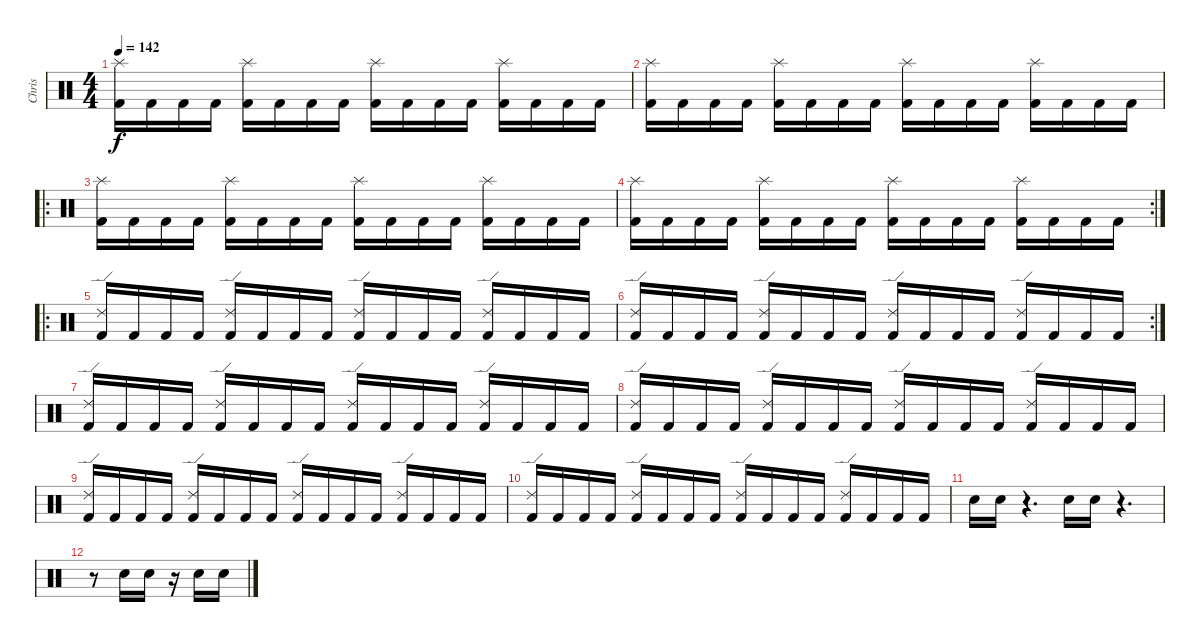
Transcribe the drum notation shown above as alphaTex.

\track ("Chris" "Chris") {instrument percussion}
\staff {score}
\articulation defaults
\ts (4 4)
\tempo 142
\clef neutral
\ks c
("Splash (hit)" "Kick (hit) 2").16{dy f} "Kick (hit) 2".16 "Kick (hit) 2".16 "Kick (hit) 2".16 ("Splash (hit)" "Kick (hit) 2").16 "Kick (hit) 2".16 "Kick (hit) 2".16 "Kick (hit) 2".16 ("Splash (hit)" "Kick (hit) 2").16 "Kick (hit) 2".16 "Kick (hit) 2".16 "Kick (hit) 2".16 ("Splash (hit)" "Kick (hit) 2").16 "Kick (hit) 2".16 "Kick (hit) 2".16 "Kick (hit) 2".16 |
("Splash (hit)" "Kick (hit) 2").16 "Kick (hit) 2".16 "Kick (hit) 2".16 "Kick (hit) 2".16 ("Splash (hit)" "Kick (hit) 2").16 "Kick (hit) 2".16 "Kick (hit) 2".16 "Kick (hit) 2".16 ("Splash (hit)" "Kick (hit) 2").16 "Kick (hit) 2".16 "Kick (hit) 2".16 "Kick (hit) 2".16 ("Splash (hit)" "Kick (hit) 2").16 "Kick (hit) 2".16 "Kick (hit) 2".16 "Kick (hit) 2".16 |
\ro
("Splash (hit)" "Kick (hit) 2").16 "Kick (hit) 2".16 "Kick (hit) 2".16 "Kick (hit) 2".16 ("Splash (hit)" "Kick (hit) 2").16 "Kick (hit) 2".16 "Kick (hit) 2".16 "Kick (hit) 2".16 ("Splash (hit)" "Kick (hit) 2").16 "Kick (hit) 2".16 "Kick (hit) 2".16 "Kick (hit) 2".16 ("Splash (hit)" "Kick (hit) 2").16 "Kick (hit) 2".16 "Kick (hit) 2".16 "Kick (hit) 2".16 |
\rc 2
("Splash (hit)" "Kick (hit) 2").16 "Kick (hit) 2".16 "Kick (hit) 2".16 "Kick (hit) 2".16 ("Splash (hit)" "Kick (hit) 2").16 "Kick (hit) 2".16 "Kick (hit) 2".16 "Kick (hit) 2".16 ("Splash (hit)" "Kick (hit) 2").16 "Kick (hit) 2".16 "Kick (hit) 2".16 "Kick (hit) 2".16 ("Splash (hit)" "Kick (hit) 2").16 "Kick (hit) 2".16 "Kick (hit) 2".16 "Kick (hit) 2".16 |
\ro
("Ride (edge) 2" "Kick (hit) 2").16 "Kick (hit) 2".16 "Kick (hit) 2".16 "Kick (hit) 2".16 ("Ride (edge) 2" "Kick (hit) 2").16 "Kick (hit) 2".16 "Kick (hit) 2".16 "Kick (hit) 2".16 ("Ride (edge) 2" "Kick (hit) 2").16 "Kick (hit) 2".16 "Kick (hit) 2".16 "Kick (hit) 2".16 ("Ride (edge) 2" "Kick (hit) 2").16 "Kick (hit) 2".16 "Kick (hit) 2".16 "Kick (hit) 2".16 |
\rc 2
("Ride (edge) 2" "Kick (hit) 2").16 "Kick (hit) 2".16 "Kick (hit) 2".16 "Kick (hit) 2".16 ("Ride (edge) 2" "Kick (hit) 2").16 "Kick (hit) 2".16 "Kick (hit) 2".16 "Kick (hit) 2".16 ("Ride (edge) 2" "Kick (hit) 2").16 "Kick (hit) 2".16 "Kick (hit) 2".16 "Kick (hit) 2".16 ("Ride (edge) 2" "Kick (hit) 2").16 "Kick (hit) 2".16 "Kick (hit) 2".16 "Kick (hit) 2".16 |
("Ride (edge) 2" "Kick (hit) 2").16 "Kick (hit) 2".16 "Kick (hit) 2".16 "Kick (hit) 2".16 ("Ride (edge) 2" "Kick (hit) 2").16 "Kick (hit) 2".16 "Kick (hit) 2".16 "Kick (hit) 2".16 ("Ride (edge) 2" "Kick (hit) 2").16 "Kick (hit) 2".16 "Kick (hit) 2".16 "Kick (hit) 2".16 ("Ride (edge) 2" "Kick (hit) 2").16 "Kick (hit) 2".16 "Kick (hit) 2".16 "Kick (hit) 2".16 |
("Ride (edge) 2" "Kick (hit) 2").16 "Kick (hit) 2".16 "Kick (hit) 2".16 "Kick (hit) 2".16 ("Ride (edge) 2" "Kick (hit) 2").16 "Kick (hit) 2".16 "Kick (hit) 2".16 "Kick (hit) 2".16 ("Ride (edge) 2" "Kick (hit) 2").16 "Kick (hit) 2".16 "Kick (hit) 2".16 "Kick (hit) 2".16 ("Ride (edge) 2" "Kick (hit) 2").16 "Kick (hit) 2".16 "Kick (hit) 2".16 "Kick (hit) 2".16 |
("Ride (edge) 2" "Kick (hit) 2").16 "Kick (hit) 2".16 "Kick (hit) 2".16 "Kick (hit) 2".16 ("Ride (edge) 2" "Kick (hit) 2").16 "Kick (hit) 2".16 "Kick (hit) 2".16 "Kick (hit) 2".16 ("Ride (edge) 2" "Kick (hit) 2").16 "Kick (hit) 2".16 "Kick (hit) 2".16 "Kick (hit) 2".16 ("Ride (edge) 2" "Kick (hit) 2").16 "Kick (hit) 2".16 "Kick (hit) 2".16 "Kick (hit) 2".16 |
("Ride (edge) 2" "Kick (hit) 2").16 "Kick (hit) 2".16 "Kick (hit) 2".16 "Kick (hit) 2".16 ("Ride (edge) 2" "Kick (hit) 2").16 "Kick (hit) 2".16 "Kick (hit) 2".16 "Kick (hit) 2".16 ("Ride (edge) 2" "Kick (hit) 2").16 "Kick (hit) 2".16 "Kick (hit) 2".16 "Kick (hit) 2".16 ("Ride (edge) 2" "Kick (hit) 2").16 "Kick (hit) 2".16 "Kick (hit) 2".16 "Kick (hit) 2".16 |
"Snare (hit) 2".16 "Snare (hit) 2".16 r.4{d} "Snare (hit) 2".16 "Snare (hit) 2".16 r.4{d} |
r.8 "Snare (hit) 2".16 "Snare (hit) 2".16 r.16 "Snare (hit) 2".16 "Snare (hit) 2".16
